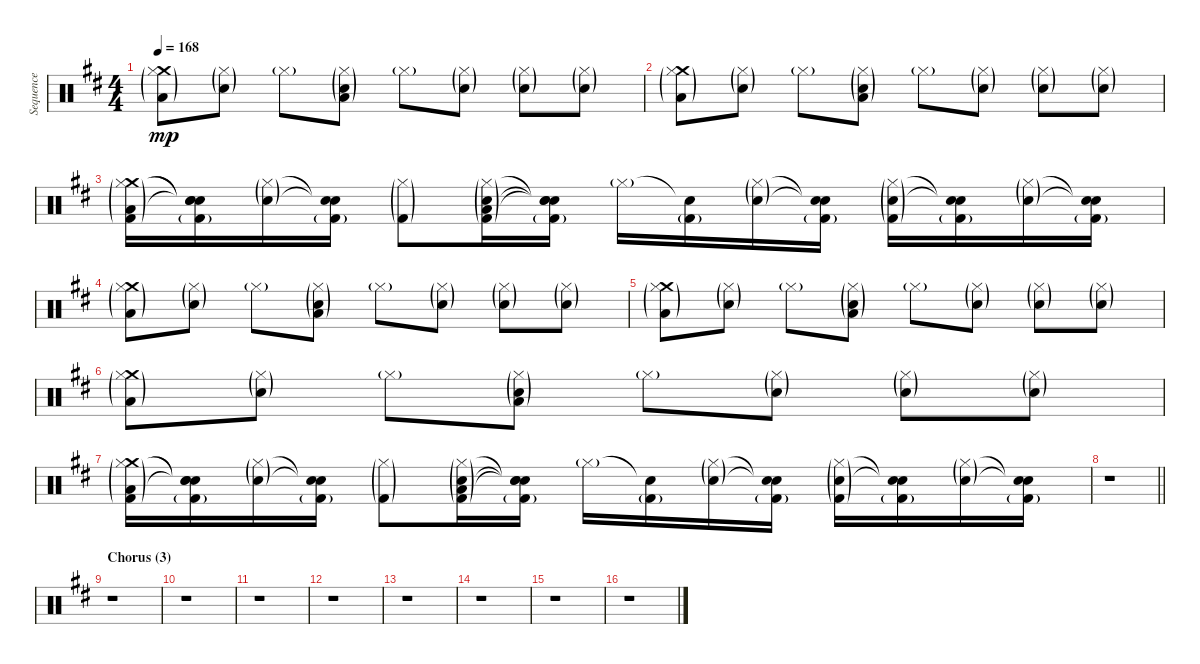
\track ("Sequence" "Sequence") {instrument percussion}
\staff {score}
\articulation defaults
\ts (4 4)
\tempo 168
\clef neutral
\ks d
("Crash medium (hit)"{g} "Hi-Hat (closed)"{g} "Low Floor Tom (hit)"{g}).8{dy mp} ("Hi-Hat (closed)"{g} "Electric Snare (hit)"{g}).8 "Hi-Hat (closed)"{g}.8 ("Hi-Hat (closed)"{g} "Electric Snare (hit)"{g} "Low Floor Tom (hit)"{g}).8 "Hi-Hat (closed)"{g}.8 ("Hi-Hat (closed)"{g} "Electric Snare (hit)"{g}).8 ("Hi-Hat (closed)"{g} "Electric Snare (hit)"{g}).8 ("Hi-Hat (closed)"{g} "Electric Snare (hit)"{g}).8 |
("Crash medium (hit)"{g} "Hi-Hat (closed)"{g} "Low Floor Tom (hit)"{g}).8 ("Hi-Hat (closed)"{g} "Electric Snare (hit)"{g}).8 "Hi-Hat (closed)"{g}.8 ("Hi-Hat (closed)"{g} "Electric Snare (hit)"{g} "Low Floor Tom (hit)"{g}).8 "Hi-Hat (closed)"{g}.8 ("Hi-Hat (closed)"{g} "Electric Snare (hit)"{g}).8 ("Hi-Hat (closed)"{g} "Electric Snare (hit)"{g}).8 ("Hi-Hat (closed)"{g} "Electric Snare (hit)"{g}).8 |
("Crash medium (hit)"{g} "Hi-Hat (closed)"{g} "Low Floor Tom (hit)"{g} "Kick (hit) 2"{g}).16 ("Snare (hit)"{t} "Snare (hit)"{t} "Snare (hit)"{t} "Kick (hit) 2"{g}).16 ("Hi-Hat (closed)"{g} "Electric Snare (hit)"{g}).16 ("Snare (hit)"{t} "Snare (hit)"{t} "Kick (hit) 2"{g}).16 ("Hi-Hat (closed)"{g} "Kick (hit) 2"{g}).8 ("Hi-Hat (closed)"{g} "Electric Snare (hit)"{g} "Low Floor Tom (hit)"{g} "Kick (hit) 2"{g}).16 ("Snare (hit)"{t} "Snare (hit)"{t} "Snare (hit)"{t} "Kick (hit) 2"{g}).16 "Hi-Hat (closed)"{g}.16 ("Snare (hit)"{t} "Kick (hit) 2"{g}).16 ("Hi-Hat (closed)"{g} "Electric Snare (hit)"{g}).16 ("Snare (hit)"{t} "Snare (hit)"{t} "Kick (hit) 2"{g}).16 ("Hi-Hat (closed)"{g} "Electric Snare (hit)"{g} "Kick (hit) 2"{g}).16 ("Snare (hit)"{t} "Snare (hit)"{t} "Kick (hit) 2"{g}).16 ("Hi-Hat (closed)"{g} "Electric Snare (hit)"{g}).16 ("Snare (hit)"{t} "Snare (hit)"{t} "Kick (hit) 2"{g}).16 |
("Crash medium (hit)"{g} "Hi-Hat (closed)"{g} "Low Floor Tom (hit)"{g}).8 ("Hi-Hat (closed)"{g} "Electric Snare (hit)"{g}).8 "Hi-Hat (closed)"{g}.8 ("Hi-Hat (closed)"{g} "Electric Snare (hit)"{g} "Low Floor Tom (hit)"{g}).8 "Hi-Hat (closed)"{g}.8 ("Hi-Hat (closed)"{g} "Electric Snare (hit)"{g}).8 ("Hi-Hat (closed)"{g} "Electric Snare (hit)"{g}).8 ("Hi-Hat (closed)"{g} "Electric Snare (hit)"{g}).8 |
("Crash medium (hit)"{g} "Hi-Hat (closed)"{g} "Low Floor Tom (hit)"{g}).8 ("Hi-Hat (closed)"{g} "Electric Snare (hit)"{g}).8 "Hi-Hat (closed)"{g}.8 ("Hi-Hat (closed)"{g} "Electric Snare (hit)"{g} "Low Floor Tom (hit)"{g}).8 "Hi-Hat (closed)"{g}.8 ("Hi-Hat (closed)"{g} "Electric Snare (hit)"{g}).8 ("Hi-Hat (closed)"{g} "Electric Snare (hit)"{g}).8 ("Hi-Hat (closed)"{g} "Electric Snare (hit)"{g}).8 |
("Crash medium (hit)"{g} "Hi-Hat (closed)"{g} "Low Floor Tom (hit)"{g}).8 ("Hi-Hat (closed)"{g} "Electric Snare (hit)"{g}).8 "Hi-Hat (closed)"{g}.8 ("Hi-Hat (closed)"{g} "Electric Snare (hit)"{g} "Low Floor Tom (hit)"{g}).8 "Hi-Hat (closed)"{g}.8 ("Hi-Hat (closed)"{g} "Electric Snare (hit)"{g}).8 ("Hi-Hat (closed)"{g} "Electric Snare (hit)"{g}).8 ("Hi-Hat (closed)"{g} "Electric Snare (hit)"{g}).8 |
("Crash medium (hit)"{g} "Hi-Hat (closed)"{g} "Low Floor Tom (hit)"{g} "Kick (hit) 2"{g}).16 ("Snare (hit)"{t} "Snare (hit)"{t} "Snare (hit)"{t} "Kick (hit) 2"{g}).16 ("Hi-Hat (closed)"{g} "Electric Snare (hit)"{g}).16 ("Snare (hit)"{t} "Snare (hit)"{t} "Kick (hit) 2"{g}).16 ("Hi-Hat (closed)"{g} "Kick (hit) 2"{g}).8 ("Hi-Hat (closed)"{g} "Electric Snare (hit)"{g} "Low Floor Tom (hit)"{g} "Kick (hit) 2"{g}).16 ("Snare (hit)"{t} "Snare (hit)"{t} "Snare (hit)"{t} "Kick (hit) 2"{g}).16 "Hi-Hat (closed)"{g}.16 ("Snare (hit)"{t} "Kick (hit) 2"{g}).16 ("Hi-Hat (closed)"{g} "Electric Snare (hit)"{g}).16 ("Snare (hit)"{t} "Snare (hit)"{t} "Kick (hit) 2"{g}).16 ("Hi-Hat (closed)"{g} "Electric Snare (hit)"{g} "Kick (hit) 2"{g}).16 ("Snare (hit)"{t} "Snare (hit)"{t} "Kick (hit) 2"{g}).16 ("Hi-Hat (closed)"{g} "Electric Snare (hit)"{g}).16 ("Snare (hit)"{t} "Snare (hit)"{t} "Kick (hit) 2"{g}).16 |
\barLineRight lightlight
r.1 |
\section ("" "Chorus (3)")
r.1 |
r.1 |
r.1 |
r.1 |
r.1 |
r.1 |
r.1 |
r.1
